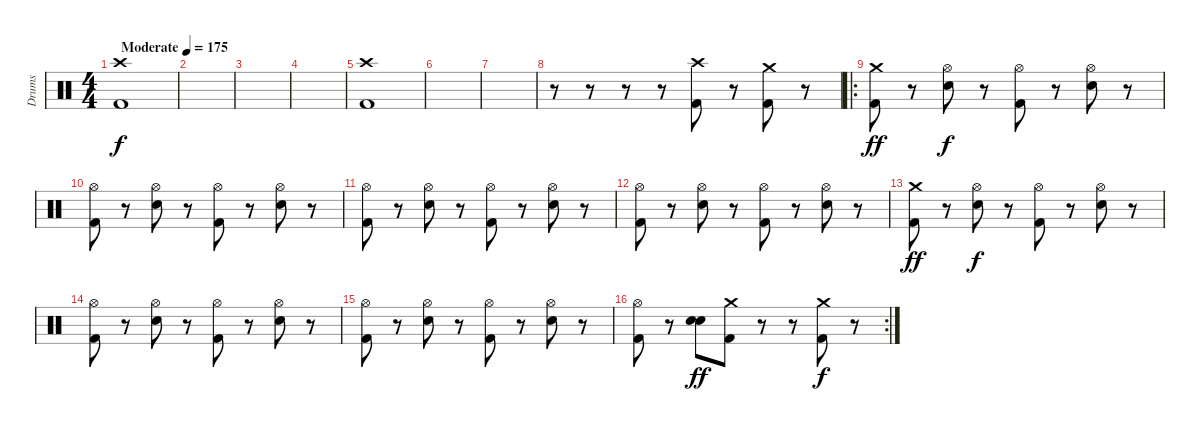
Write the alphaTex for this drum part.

\track ("Drums" "Drums") {instrument percussion}
\staff {score}
\articulation defaults
\ts (4 4)
\tempo (175 "Moderate")
\clef neutral
\ks c
("Crash high (hit)" "Kick (hit) 2").1{dy f} |
|
|
|
("Crash high (hit)" "Kick (hit) 2").1 |
|
|
r.8 r.8 r.8 r.8 ("Crash high (hit)" "Kick (hit) 2").8 r.8 ("Crash medium (hit)" "Kick (hit) 2").8 r.8 |
\ro
("Crash medium (hit)" "Kick (hit) 2").8{dy ff} r.8 ("Hi-Hat (open)" "Electric Snare (hit)").8{dy f} r.8 ("Hi-Hat (open)" "Kick (hit) 2").8 r.8 ("Hi-Hat (open)" "Electric Snare (hit)").8 r.8 |
("Hi-Hat (open)" "Kick (hit) 2").8 r.8 ("Hi-Hat (open)" "Electric Snare (hit)").8 r.8 ("Hi-Hat (open)" "Kick (hit) 2").8 r.8 ("Hi-Hat (open)" "Electric Snare (hit)").8 r.8 |
("Hi-Hat (open)" "Kick (hit) 2").8 r.8 ("Hi-Hat (open)" "Electric Snare (hit)").8 r.8 ("Hi-Hat (open)" "Kick (hit) 2").8 r.8 ("Hi-Hat (open)" "Electric Snare (hit)").8 r.8 |
("Hi-Hat (open)" "Kick (hit) 2").8 r.8 ("Hi-Hat (open)" "Electric Snare (hit)").8 r.8 ("Hi-Hat (open)" "Kick (hit) 2").8 r.8 ("Hi-Hat (open)" "Electric Snare (hit)").8 r.8 |
("Crash medium (hit)" "Kick (hit) 2").8{dy ff} r.8 ("Hi-Hat (open)" "Electric Snare (hit)").8{dy f} r.8 ("Hi-Hat (open)" "Kick (hit) 2").8 r.8 ("Hi-Hat (open)" "Electric Snare (hit)").8 r.8 |
("Hi-Hat (open)" "Kick (hit) 2").8 r.8 ("Hi-Hat (open)" "Electric Snare (hit)").8 r.8 ("Hi-Hat (open)" "Kick (hit) 2").8 r.8 ("Hi-Hat (open)" "Electric Snare (hit)").8 r.8 |
("Hi-Hat (open)" "Kick (hit) 2").8 r.8 ("Hi-Hat (open)" "Electric Snare (hit)").8 r.8 ("Hi-Hat (open)" "Kick (hit) 2").8 r.8 ("Hi-Hat (open)" "Electric Snare (hit)").8 r.8 |
\rc 2
("Hi-Hat (open)" "Kick (hit) 2").8 r.8 ("Electric Snare (hit)" "Electric Snare (hit)").8{bd 240 dy ff} ("Crash medium (hit)" "Kick (hit) 2").8 r.8 r.8 ("Crash medium (hit)" "Kick (hit) 2").8{dy f} r.8
